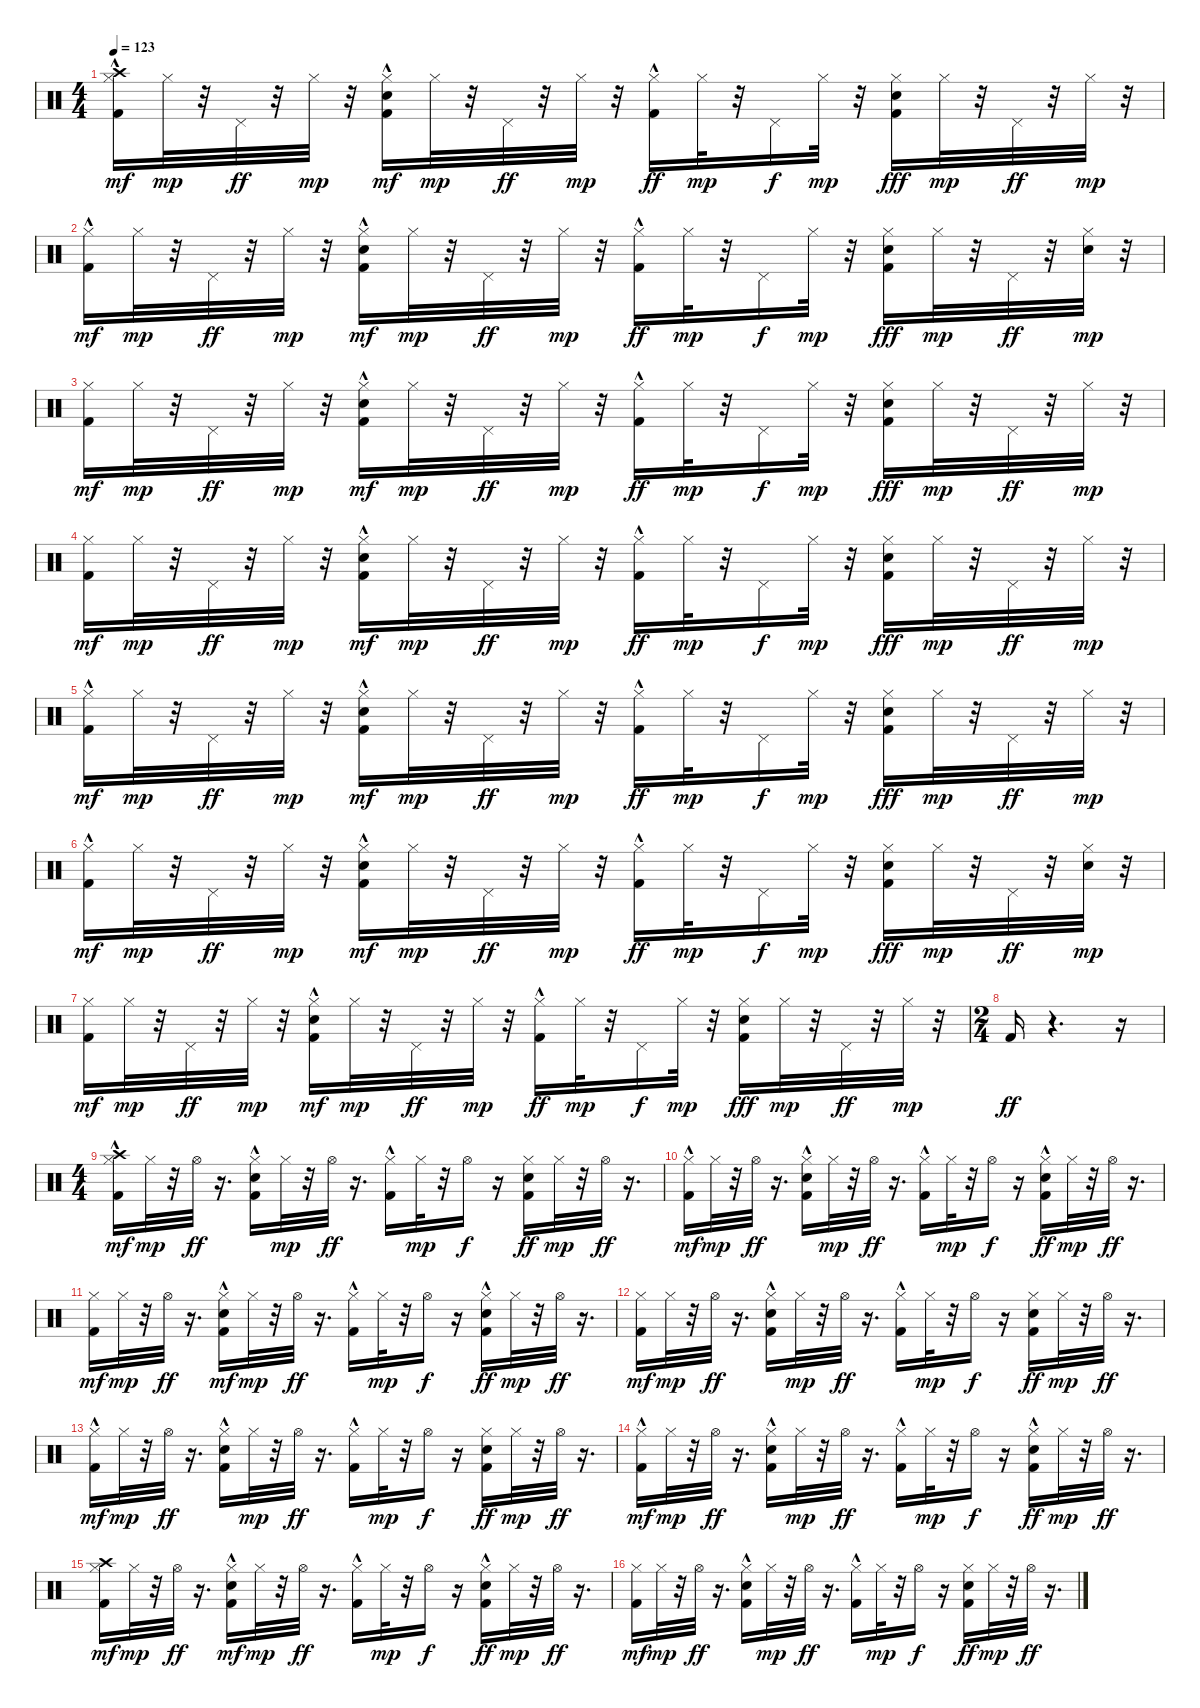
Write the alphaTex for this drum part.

\track "" {instrument percussion}
\staff {score}
\articulation defaults
\ts (4 4)
\tempo 123
\clef neutral
\ks c
("Kick (hit) 2"{hac} "Crash high (hit)" "Hi-Hat (closed)").16{dy mf} "Hi-Hat (closed)".32{dy mp} r.32 "Pedal Hi-Hat (hit)".32{dy ff} r.32 "Hi-Hat (closed)".32{dy mp} r.32 ("Kick (hit) 2"{hac} "Snare (hit) 2" "Hi-Hat (closed)").16{dy mf} "Hi-Hat (closed)".32{dy mp} r.32 "Pedal Hi-Hat (hit)".32{dy ff} r.32 "Hi-Hat (closed)".32{dy mp} r.32 ("Kick (hit) 2"{hac} "Hi-Hat (closed)").16{dy ff} "Hi-Hat (closed)".32{dy mp} r.32 "Pedal Hi-Hat (hit)".16{dy f} "Hi-Hat (closed)".32{dy mp} r.32 ("Kick (hit) 2" "Snare (hit) 2" "Hi-Hat (closed)").16{dy fff} "Hi-Hat (closed)".32{dy mp} r.32 "Pedal Hi-Hat (hit)".32{dy ff} r.32 "Hi-Hat (closed)".32{dy mp} r.32 |
("Kick (hit) 2"{hac} "Hi-Hat (closed)").16{dy mf} "Hi-Hat (closed)".32{dy mp} r.32 "Pedal Hi-Hat (hit)".32{dy ff} r.32 "Hi-Hat (closed)".32{dy mp} r.32 ("Kick (hit) 2"{hac} "Snare (hit) 2" "Hi-Hat (closed)").16{dy mf} "Hi-Hat (closed)".32{dy mp} r.32 "Pedal Hi-Hat (hit)".32{dy ff} r.32 "Hi-Hat (closed)".32{dy mp} r.32 ("Kick (hit) 2"{hac} "Hi-Hat (closed)").16{dy ff} "Hi-Hat (closed)".32{dy mp} r.32 "Pedal Hi-Hat (hit)".16{dy f} "Hi-Hat (closed)".32{dy mp} r.32 ("Kick (hit) 2" "Snare (hit) 2" "Hi-Hat (closed)").16{dy fff} "Hi-Hat (closed)".32{dy mp} r.32 "Pedal Hi-Hat (hit)".32{dy ff} r.32 ("Hi-Hat (closed)" "Snare (hit) 2").32{dy mp} r.32 |
("Kick (hit) 2" "Hi-Hat (closed)").16{dy mf} "Hi-Hat (closed)".32{dy mp} r.32 "Pedal Hi-Hat (hit)".32{dy ff} r.32 "Hi-Hat (closed)".32{dy mp} r.32 ("Kick (hit) 2"{hac} "Snare (hit) 2" "Hi-Hat (closed)").16{dy mf} "Hi-Hat (closed)".32{dy mp} r.32 "Pedal Hi-Hat (hit)".32{dy ff} r.32 "Hi-Hat (closed)".32{dy mp} r.32 ("Kick (hit) 2"{hac} "Hi-Hat (closed)").16{dy ff} "Hi-Hat (closed)".32{dy mp} r.32 "Pedal Hi-Hat (hit)".16{dy f} "Hi-Hat (closed)".32{dy mp} r.32 ("Kick (hit) 2" "Snare (hit) 2" "Hi-Hat (closed)").16{dy fff} "Hi-Hat (closed)".32{dy mp} r.32 "Pedal Hi-Hat (hit)".32{dy ff} r.32 "Hi-Hat (closed)".32{dy mp} r.32 |
("Kick (hit) 2" "Hi-Hat (closed)").16{dy mf} "Hi-Hat (closed)".32{dy mp} r.32 "Pedal Hi-Hat (hit)".32{dy ff} r.32 "Hi-Hat (closed)".32{dy mp} r.32 ("Kick (hit) 2"{hac} "Snare (hit) 2" "Hi-Hat (closed)").16{dy mf} "Hi-Hat (closed)".32{dy mp} r.32 "Pedal Hi-Hat (hit)".32{dy ff} r.32 "Hi-Hat (closed)".32{dy mp} r.32 ("Kick (hit) 2"{hac} "Hi-Hat (closed)").16{dy ff} "Hi-Hat (closed)".32{dy mp} r.32 "Pedal Hi-Hat (hit)".16{dy f} "Hi-Hat (closed)".32{dy mp} r.32 ("Kick (hit) 2" "Snare (hit) 2" "Hi-Hat (closed)").16{dy fff} "Hi-Hat (closed)".32{dy mp} r.32 "Pedal Hi-Hat (hit)".32{dy ff} r.32 "Hi-Hat (closed)".32{dy mp} r.32 |
("Kick (hit) 2"{hac} "Hi-Hat (closed)").16{dy mf} "Hi-Hat (closed)".32{dy mp} r.32 "Pedal Hi-Hat (hit)".32{dy ff} r.32 "Hi-Hat (closed)".32{dy mp} r.32 ("Kick (hit) 2"{hac} "Snare (hit) 2" "Hi-Hat (closed)").16{dy mf} "Hi-Hat (closed)".32{dy mp} r.32 "Pedal Hi-Hat (hit)".32{dy ff} r.32 "Hi-Hat (closed)".32{dy mp} r.32 ("Kick (hit) 2"{hac} "Hi-Hat (closed)").16{dy ff} "Hi-Hat (closed)".32{dy mp} r.32 "Pedal Hi-Hat (hit)".16{dy f} "Hi-Hat (closed)".32{dy mp} r.32 ("Kick (hit) 2" "Snare (hit) 2" "Hi-Hat (closed)").16{dy fff} "Hi-Hat (closed)".32{dy mp} r.32 "Pedal Hi-Hat (hit)".32{dy ff} r.32 "Hi-Hat (closed)".32{dy mp} r.32 |
("Kick (hit) 2"{hac} "Hi-Hat (closed)").16{dy mf} "Hi-Hat (closed)".32{dy mp} r.32 "Pedal Hi-Hat (hit)".32{dy ff} r.32 "Hi-Hat (closed)".32{dy mp} r.32 ("Kick (hit) 2"{hac} "Snare (hit) 2" "Hi-Hat (closed)").16{dy mf} "Hi-Hat (closed)".32{dy mp} r.32 "Pedal Hi-Hat (hit)".32{dy ff} r.32 "Hi-Hat (closed)".32{dy mp} r.32 ("Kick (hit) 2"{hac} "Hi-Hat (closed)").16{dy ff} "Hi-Hat (closed)".32{dy mp} r.32 "Pedal Hi-Hat (hit)".16{dy f} "Hi-Hat (closed)".32{dy mp} r.32 ("Kick (hit) 2" "Snare (hit) 2" "Hi-Hat (closed)").16{dy fff} "Hi-Hat (closed)".32{dy mp} r.32 "Pedal Hi-Hat (hit)".32{dy ff} r.32 ("Hi-Hat (closed)" "Snare (hit) 2").32{dy mp} r.32 |
("Kick (hit) 2" "Hi-Hat (closed)").16{dy mf} "Hi-Hat (closed)".32{dy mp} r.32 "Pedal Hi-Hat (hit)".32{dy ff} r.32 "Hi-Hat (closed)".32{dy mp} r.32 ("Kick (hit) 2"{hac} "Snare (hit) 2" "Hi-Hat (closed)").16{dy mf} "Hi-Hat (closed)".32{dy mp} r.32 "Pedal Hi-Hat (hit)".32{dy ff} r.32 "Hi-Hat (closed)".32{dy mp} r.32 ("Kick (hit) 2"{hac} "Hi-Hat (closed)").16{dy ff} "Hi-Hat (closed)".32{dy mp} r.32 "Pedal Hi-Hat (hit)".16{dy f} "Hi-Hat (closed)".32{dy mp} r.32 ("Kick (hit) 2" "Snare (hit) 2" "Hi-Hat (closed)").16{dy fff} "Hi-Hat (closed)".32{dy mp} r.32 "Pedal Hi-Hat (hit)".32{dy ff} r.32 "Hi-Hat (closed)".32{dy mp} r.32 |
\ts (2 4)
"Kick (hit) 2".16{dy ff} r.4{d} r.16 |
\ts (4 4)
("Kick (hit) 2"{hac} "Crash high (hit)" "Hi-Hat (closed)").16{dy mf} "Hi-Hat (closed)".32{dy mp} r.32 "Hi-Hat (open)".32{dy ff} r.16{d} ("Kick (hit) 2"{hac} "Hi-Hat (closed)" "Snare (hit) 2").16 "Hi-Hat (closed)".32{dy mp} r.32 "Hi-Hat (open)".32{dy ff} r.16{d} ("Kick (hit) 2"{hac} "Hi-Hat (closed)").16 "Hi-Hat (closed)".32{dy mp} r.32 "Hi-Hat (open)".16{dy f} r.16 ("Snare (hit) 2" "Kick (hit) 2" "Hi-Hat (closed)").16{dy ff} "Hi-Hat (closed)".32{dy mp} r.32 "Hi-Hat (open)".32{dy ff} r.16{d} |
("Kick (hit) 2"{hac} "Hi-Hat (closed)").16{dy mf} "Hi-Hat (closed)".32{dy mp} r.32 "Hi-Hat (open)".32{dy ff} r.16{d} ("Kick (hit) 2"{hac} "Hi-Hat (closed)" "Snare (hit) 2").16 "Hi-Hat (closed)".32{dy mp} r.32 "Hi-Hat (open)".32{dy ff} r.16{d} ("Kick (hit) 2"{hac} "Hi-Hat (closed)").16 "Hi-Hat (closed)".32{dy mp} r.32 "Hi-Hat (open)".16{dy f} r.16 ("Snare (hit) 2"{hac} "Kick (hit) 2" "Hi-Hat (closed)").16{dy ff} "Hi-Hat (closed)".32{dy mp} r.32 "Hi-Hat (open)".32{dy ff} r.16{d} |
("Kick (hit) 2" "Hi-Hat (closed)").16{dy mf} "Hi-Hat (closed)".32{dy mp} r.32 "Hi-Hat (open)".32{dy ff} r.16{d} ("Kick (hit) 2"{hac} "Snare (hit) 2"{hac} "Hi-Hat (closed)").16{dy mf} "Hi-Hat (closed)".32{dy mp} r.32 "Hi-Hat (open)".32{dy ff} r.16{d} ("Kick (hit) 2"{hac} "Hi-Hat (closed)").16 "Hi-Hat (closed)".32{dy mp} r.32 "Hi-Hat (open)".16{dy f} r.16 ("Snare (hit) 2"{hac} "Kick (hit) 2" "Hi-Hat (closed)").16{dy ff} "Hi-Hat (closed)".32{dy mp} r.32 "Hi-Hat (open)".32{dy ff} r.16{d} |
("Kick (hit) 2" "Hi-Hat (closed)").16{dy mf} "Hi-Hat (closed)".32{dy mp} r.32 "Hi-Hat (open)".32{dy ff} r.16{d} ("Kick (hit) 2"{hac} "Hi-Hat (closed)" "Snare (hit) 2"{hac}).16 "Hi-Hat (closed)".32{dy mp} r.32 "Hi-Hat (open)".32{dy ff} r.16{d} ("Kick (hit) 2"{hac} "Hi-Hat (closed)").16 "Hi-Hat (closed)".32{dy mp} r.32 "Hi-Hat (open)".16{dy f} r.16 ("Snare (hit) 2" "Kick (hit) 2" "Hi-Hat (closed)").16{dy ff} "Hi-Hat (closed)".32{dy mp} r.32 "Hi-Hat (open)".32{dy ff} r.16{d} |
("Kick (hit) 2"{hac} "Hi-Hat (closed)").16{dy mf} "Hi-Hat (closed)".32{dy mp} r.32 "Hi-Hat (open)".32{dy ff} r.16{d} ("Kick (hit) 2"{hac} "Hi-Hat (closed)" "Snare (hit) 2").16 "Hi-Hat (closed)".32{dy mp} r.32 "Hi-Hat (open)".32{dy ff} r.16{d} ("Kick (hit) 2"{hac} "Hi-Hat (closed)").16 "Hi-Hat (closed)".32{dy mp} r.32 "Hi-Hat (open)".16{dy f} r.16 ("Snare (hit) 2" "Kick (hit) 2" "Hi-Hat (closed)").16{dy ff} "Hi-Hat (closed)".32{dy mp} r.32 "Hi-Hat (open)".32{dy ff} r.16{d} |
("Kick (hit) 2"{hac} "Hi-Hat (closed)").16{dy mf} "Hi-Hat (closed)".32{dy mp} r.32 "Hi-Hat (open)".32{dy ff} r.16{d} ("Kick (hit) 2"{hac} "Hi-Hat (closed)" "Snare (hit) 2").16 "Hi-Hat (closed)".32{dy mp} r.32 "Hi-Hat (open)".32{dy ff} r.16{d} ("Kick (hit) 2"{hac} "Hi-Hat (closed)").16 "Hi-Hat (closed)".32{dy mp} r.32 "Hi-Hat (open)".16{dy f} r.16 ("Snare (hit) 2"{hac} "Kick (hit) 2" "Hi-Hat (closed)").16{dy ff} "Hi-Hat (closed)".32{dy mp} r.32 "Hi-Hat (open)".32{dy ff} r.16{d} |
("Kick (hit) 2" "Crash high (hit)" "Hi-Hat (closed)").16{dy mf} "Hi-Hat (closed)".32{dy mp} r.32 "Hi-Hat (open)".32{dy ff} r.16{d} ("Kick (hit) 2"{hac} "Snare (hit) 2"{hac} "Hi-Hat (closed)").16{dy mf} "Hi-Hat (closed)".32{dy mp} r.32 "Hi-Hat (open)".32{dy ff} r.16{d} ("Kick (hit) 2"{hac} "Hi-Hat (closed)").16 "Hi-Hat (closed)".32{dy mp} r.32 "Hi-Hat (open)".16{dy f} r.16 ("Snare (hit) 2"{hac} "Kick (hit) 2" "Hi-Hat (closed)").16{dy ff} "Hi-Hat (closed)".32{dy mp} r.32 "Hi-Hat (open)".32{dy ff} r.16{d} |
("Kick (hit) 2" "Hi-Hat (closed)").16{dy mf} "Hi-Hat (closed)".32{dy mp} r.32 "Hi-Hat (open)".32{dy ff} r.16{d} ("Kick (hit) 2"{hac} "Hi-Hat (closed)" "Snare (hit) 2"{hac}).16 "Hi-Hat (closed)".32{dy mp} r.32 "Hi-Hat (open)".32{dy ff} r.16{d} ("Kick (hit) 2"{hac} "Hi-Hat (closed)").16 "Hi-Hat (closed)".32{dy mp} r.32 "Hi-Hat (open)".16{dy f} r.16 ("Snare (hit) 2" "Kick (hit) 2" "Hi-Hat (closed)").16{dy ff} "Hi-Hat (closed)".32{dy mp} r.32 "Hi-Hat (open)".32{dy ff} r.16{d}
